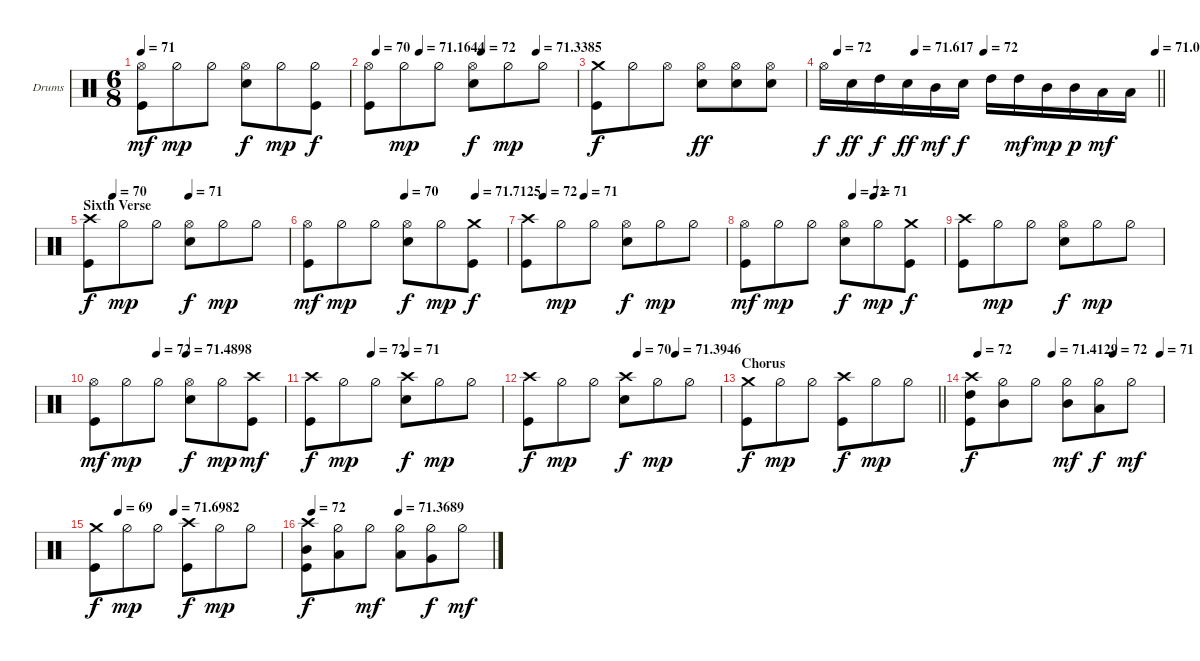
\bracketExtendMode groupsimilarinstruments
\firstSystemTrackNameOrientation horizontal
\otherSystemsTrackNameOrientation horizontal
\track ("Drums" "Drums") {instrument percussion}
\staff {score}
\articulation defaults
\ts (6 8)
\tempo 71
\clef neutral
\ks c
("Hi-Hat (open)" "Kick (hit)").8{dy mf} "Hi-Hat (half)".8{dy mp} "Hi-Hat (half)".8 ("Hi-Hat (open)" "Snare (hit) 2").8{dy f} "Hi-Hat (half)".8{dy mp} ("Hi-Hat (half)" "Kick (hit)").8{dy f} |
\tempo (70 0.0375)
\tempo (71.1644 0.24375)
\tempo (72 0.54375)
\tempo (71.3385 0.80625)
("Hi-Hat (open)" "Kick (hit)").8 "Hi-Hat (half)".8{dy mp} "Hi-Hat (half)".8 ("Hi-Hat (open)" "Snare (hit) 2").8{dy f} "Hi-Hat (half)".8{dy mp} "Hi-Hat (half)".8 |
("Crash medium (hit)" "Kick (hit)").8{dy f} "Hi-Hat (half)".8 "Hi-Hat (open)".8 ("Hi-Hat (open)" "Snare (hit) 2").8{dy ff} ("Hi-Hat (open)" "Snare (hit) 2").8 ("Hi-Hat (open)" "Snare (hit) 2").8 |
\tempo (72 0.04375)
\tempo (71.617 0.275)
\tempo (72 0.48125)
\tempo (71.0087 0.99375)
\barLineRight lightlight "Hi-Hat (open)".16{dy f} "Snare (hit) 2".16{dy ff} "High Tom (hit)".16{dy f} "Snare (hit) 2".16{dy ff} "Mid Tom (hit)".16{dy mf} "Snare (hit) 2".16{dy f} "High Tom (hit)".16 "High Tom (hit)".16{dy mf} "Mid Tom (hit)".16{dy mp} "Mid Tom (hit)".16{dy p} "Low Tom (hit)".16{dy mf} "Low Tom (hit)".16
|
\section ("" "Sixth Verse")
\tempo (70 0.11875)
\tempo (71 0.5)
("Crash high (hit)" "Kick (hit)").8{dy f} "Hi-Hat (half)".8{dy mp} "Hi-Hat (half)".8 ("Hi-Hat (open)" "Snare (hit) 2").8{dy f} "Hi-Hat (half)".8{dy mp} "Hi-Hat (half)".8 |
\tempo (70 0.4875)
\tempo (71.7125 0.84375)
("Hi-Hat (open)" "Kick (hit)").8{dy mf} "Hi-Hat (half)".8{dy mp} "Hi-Hat (half)".8 ("Hi-Hat (open)" "Snare (hit) 2").8{dy f} "Hi-Hat (half)".8{dy mp} ("Crash medium (hit)" "Kick (hit)").8{dy f} |
\tempo (72 0.08125)
\tempo (71 0.2875)
("Crash high (hit)" "Kick (hit)").8 "Hi-Hat (half)".8{dy mp} "Hi-Hat (half)".8 ("Hi-Hat (open)" "Snare (hit) 2").8{dy f} "Hi-Hat (half)".8{dy mp} "Hi-Hat (half)".8 |
\tempo (72 0.54375)
\tempo (71 0.65)
("Hi-Hat (open)" "Kick (hit)").8{dy mf} "Hi-Hat (half)".8{dy mp} "Hi-Hat (half)".8 ("Hi-Hat (open)" "Snare (hit) 2").8{dy f} "Hi-Hat (half)".8{dy mp} ("Crash medium (hit)" "Kick (hit)").8{dy f} |
("Crash high (hit)" "Kick (hit)").8 "Hi-Hat (half)".8{dy mp} "Hi-Hat (half)".8 ("Hi-Hat (open)" "Snare (hit) 2").8{dy f} "Hi-Hat (half)".8{dy mp} "Hi-Hat (half)".8 |
\tempo (72 0.33125)
\tempo (71.4898 0.4875)
("Hi-Hat (open)" "Kick (hit)").8{dy mf} "Hi-Hat (half)".8{dy mp} "Hi-Hat (half)".8 ("Hi-Hat (open)" "Snare (hit) 2").8{dy f} "Hi-Hat (half)".8{dy mp} ("Crash high (hit)" "Kick (hit)").8{dy mf} |
\tempo (72 0.31875)
\tempo (71 0.5)
("Crash high (hit)" "Kick (hit)").8{dy f} "Hi-Hat (half)".8{dy mp} "Hi-Hat (half)".8 ("Crash high (hit)" "Snare (hit) 2").8{dy f} "Hi-Hat (half)".8{dy mp} "Hi-Hat (half)".8 |
\tempo (70 0.56875)
\tempo (71.3946 0.76875)
("Crash high (hit)" "Kick (hit)").8{dy f} "Hi-Hat (half)".8{dy mp} "Hi-Hat (half)".8 ("Crash high (hit)" "Snare (hit) 2").8{dy f} "Hi-Hat (half)".8{dy mp} "Hi-Hat (half)".8 |
\section ("" "Chorus")
\barLineRight lightlight
("Crash medium (hit)" "Kick (hit)").8{dy f} "Hi-Hat (half)".8{dy mp} "Hi-Hat (half)".8 ("Crash high (hit)" "Kick (hit)").8{dy f} "Hi-Hat (half)".8{dy mp} "Hi-Hat (half)".8 |
\tempo (72 0.0375)
\tempo (71.4129 0.425)
\tempo (72 0.74375)
\tempo (71 0.9875)
("Crash high (hit)" "Kick (hit)" "High Tom (hit)").8{dy f} ("Hi-Hat (half)" "Mid Tom (hit)").8 "Hi-Hat (half)".8 ("Hi-Hat (half)" "Mid Tom (hit)").8{dy mf} ("Hi-Hat (half)" "Low Tom (hit)").8{dy f} "Hi-Hat (half)".8{dy mf} |
\tempo (69 0.125)
\tempo (71.6982 0.425)
("Crash medium (hit)" "Kick (hit)").8{dy f} "Hi-Hat (half)".8{dy mp} "Hi-Hat (half)".8 ("Crash high (hit)" "Kick (hit)").8{dy f} "Hi-Hat (half)".8{dy mp} "Hi-Hat (half)".8 |
\tempo (72 0.025)
\tempo (71.3689 0.49375)
("Crash high (hit)" "Kick (hit)" "Mid Tom (hit)").8{dy f} ("Hi-Hat (half)" "Low Tom (hit)").8 "Hi-Hat (half)".8{dy mf} ("Hi-Hat (half)" "Low Tom (hit)").8 ("Hi-Hat (half)" "Very Low Tom (hit)").8{dy f} "Hi-Hat (half)".8{dy mf}
